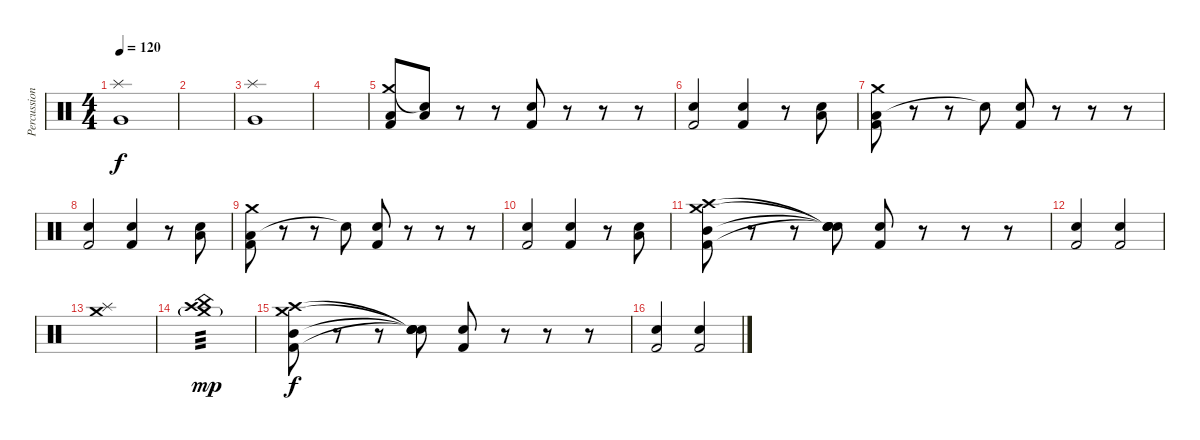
\track ("Percussion" "Percussion") {instrument percussion}
\staff {score}
\articulation defaults
\ts (4 4)
\tempo 120
\clef neutral
\ks c
("Splash (hit)" "Very Low Tom (hit)").1{dy f} |
|
("Splash (hit)" "Very Low Tom (hit)").1 |
|
("Low Floor Tom (hit)" "Crash medium (hit)" "Kick (hit) 2").8 ("Low Tom (hit)" "Snare (hit)"{t}).8 r.8 r.8 ("Metronome (bell)" "Kick (hit) 2").8 r.8 r.8 r.8 |
("Metronome (bell)" "Kick (hit) 2").2 ("Metronome (bell)" "Kick (hit) 2").4 r.8 ("Snare (hit) 2" "Low Floor Tom (hit)").8 |
("Low Tom (hit)" "Crash medium (hit)" "Kick (hit) 2").8 r.8 r.8 "Snare (hit)"{t}.8 ("Metronome (bell)" "Kick (hit) 2").8 r.8 r.8 r.8 |
("Metronome (bell)" "Kick (hit) 2").2 ("Metronome (bell)" "Kick (hit) 2").4 r.8 ("Snare (hit) 2" "Low Floor Tom (hit)").8 |
("Low Tom (hit)" "Crash medium (hit)" "Kick (hit) 2").8 r.8 r.8 "Snare (hit)"{t}.8 ("Metronome (bell)" "Kick (hit) 2").8 r.8 r.8 r.8 |
("Metronome (bell)" "Kick (hit) 2").2 ("Metronome (bell)" "Kick (hit) 2").4 r.8 ("Snare (hit) 2" "Low Tom (hit)").8 |
("Mid Tom (hit)" "Crash medium (hit)" "Kick (hit) 2" "Crash high (hit)").8 r.8 r.8 ("Snare (hit)"{t} "Snare (hit)"{t} "Snare (hit)"{t} "Snare (hit)"{t}).8 ("Metronome (bell)" "Kick (hit) 2").8 r.8 r.8 r.8 |
("Metronome (bell)" "Kick (hit) 2").2 ("Metronome (bell)" "Kick (hit) 2").2 |
("Crash medium (hit)" "Splash (hit)").1 |
("China (hit)" "Crash medium (hit)"{g} "Crash high (hit)").1{tp 3 dy mp} |
("Mid Tom (hit)" "Crash medium (hit)" "Kick (hit) 2" "Crash high (hit)").8{dy f} r.8 r.8 ("Snare (hit)"{t} "Snare (hit)"{t} "Snare (hit)"{t} "Snare (hit)"{t}).8 ("Metronome (bell)" "Kick (hit) 2").8 r.8 r.8 r.8 |
("Metronome (bell)" "Kick (hit) 2").2 ("Metronome (bell)" "Kick (hit) 2").2
